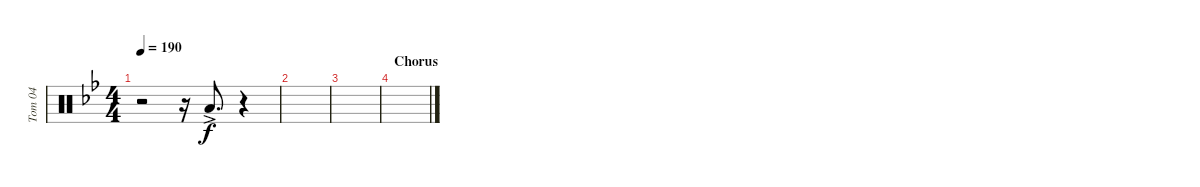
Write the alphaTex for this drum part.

\track ("Tom 04" "Tom 04") {instrument percussion}
\staff {score}
\articulation defaults
\ts (4 4)
\tempo 190
\clef neutral
\ks bb
r.2{dy f} r.16 "Low Tom (hit)"{ac}.8{d} r.4 |
|
|
\section ("" "Chorus")
